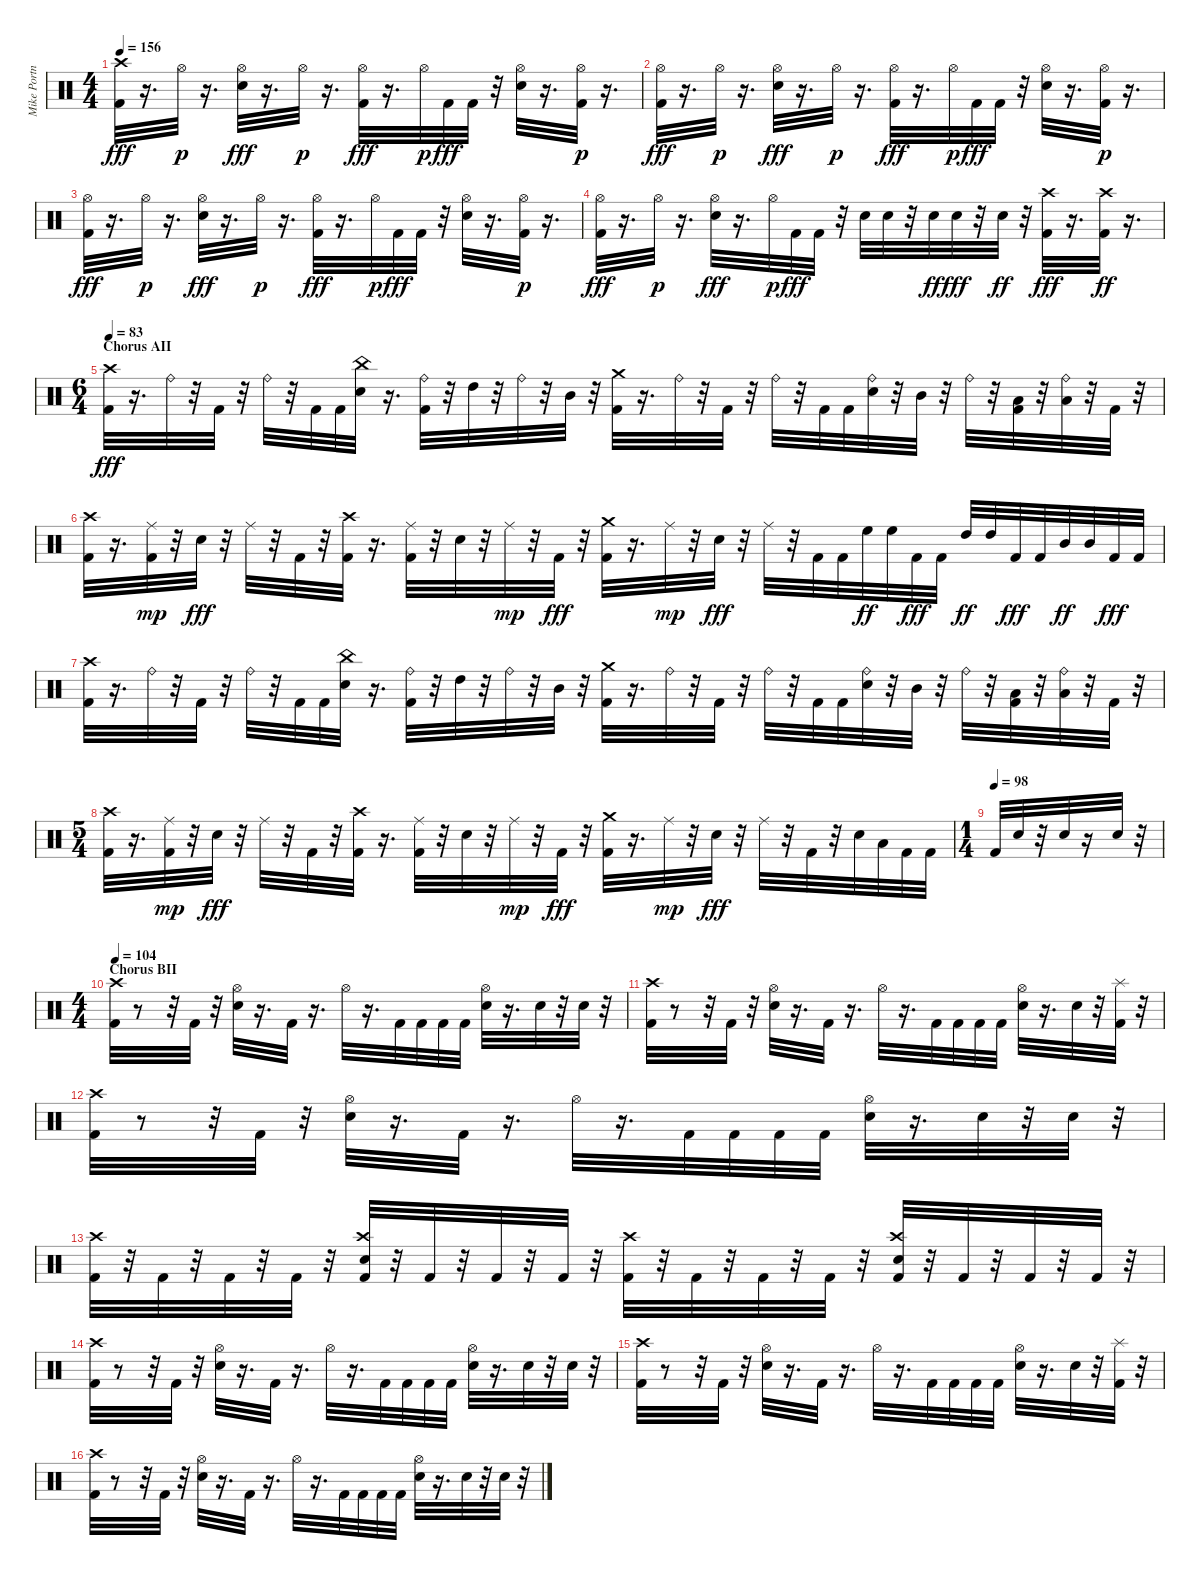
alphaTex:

\track ("Mike Portnoy" "Mike Portn") {instrument percussion}
\staff {score}
\articulation defaults
\ts (4 4)
\tempo 156
\clef neutral
\ks c
("Kick (hit) 2" "Crash high (hit)").32{dy fff} r.16{d} "Hi-Hat (open)".32{dy p} r.16{d} ("Snare (hit) 2" "Hi-Hat (open)").32{dy fff} r.16{d} "Hi-Hat (open)".32{dy p} r.16{d} ("Kick (hit) 2" "Hi-Hat (open)").32{dy fff} r.16{d} "Hi-Hat (open)".32{dy p} "Kick (hit) 2".32{dy fff} "Kick (hit) 2".32 r.32 ("Snare (hit) 2" "Hi-Hat (open)").32 r.16{d} ("Kick (hit) 2" "Hi-Hat (open)").32{dy p} r.16{d} |
("Kick (hit) 2" "Hi-Hat (open)").32{dy fff} r.16{d} "Hi-Hat (open)".32{dy p} r.16{d} ("Snare (hit) 2" "Hi-Hat (open)").32{dy fff} r.16{d} "Hi-Hat (open)".32{dy p} r.16{d} ("Kick (hit) 2" "Hi-Hat (open)").32{dy fff} r.16{d} "Hi-Hat (open)".32{dy p} "Kick (hit) 2".32{dy fff} "Kick (hit) 2".32 r.32 ("Snare (hit) 2" "Hi-Hat (open)").32 r.16{d} ("Kick (hit) 2" "Hi-Hat (open)").32{dy p} r.16{d} |
("Kick (hit) 2" "Hi-Hat (open)").32{dy fff} r.16{d} "Hi-Hat (open)".32{dy p} r.16{d} ("Snare (hit) 2" "Hi-Hat (open)").32{dy fff} r.16{d} "Hi-Hat (open)".32{dy p} r.16{d} ("Kick (hit) 2" "Hi-Hat (open)").32{dy fff} r.16{d} "Hi-Hat (open)".32{dy p} "Kick (hit) 2".32{dy fff} "Kick (hit) 2".32 r.32 ("Snare (hit) 2" "Hi-Hat (open)").32 r.16{d} ("Kick (hit) 2" "Hi-Hat (open)").32{dy p} r.16{d} |
("Kick (hit) 2" "Hi-Hat (open)").32{dy fff} r.16{d} "Hi-Hat (open)".32{dy p} r.16{d} ("Snare (hit) 2" "Hi-Hat (open)").32{dy fff} r.16{d} "Hi-Hat (open)".32{dy p} "Kick (hit) 2".32{dy fff} "Kick (hit) 2".32 r.32 "Snare (hit) 2".32 "Snare (hit) 2".32 r.32 "Snare (hit) 2".32{dy ff} "Snare (hit) 2".32{dy fff} r.32 "Snare (hit) 2".32{dy ff} r.32 ("Kick (hit) 2" "Crash high (hit)").32{dy fff} r.16{d} ("Kick (hit) 2" "Crash high (hit)").32{dy ff} r.16{d} |
\ts (6 4)
\section ("" "Chorus AII")
\tempo 83
("Kick (hit) 2" "Crash high (hit)").32{dy fff} r.16{d} "Ride (bell)".32 r.32 "Kick (hit) 2".32 r.32 "Ride (bell)".32 r.32 "Kick (hit) 2".32 "Kick (hit) 2".32 ("Snare (hit) 2" "China (hit)").32 r.16{d} ("Kick (hit) 2" "Ride (bell)").32 r.32 "High Tom (hit)".32 r.32 "Ride (bell)".32 r.32 "Mid Tom (hit)".32 r.32 ("Kick (hit) 2" "Crash medium (hit)").32 r.16{d} "Ride (bell)".32 r.32 "Kick (hit) 2".32 r.32 "Ride (bell)".32 r.32 "Kick (hit) 2".32 "Kick (hit) 2".32 ("Snare (hit) 2" "Ride (bell)").32 r.32 "Mid Tom (hit)".32 r.32 "Ride (bell)".32 r.32 ("Kick (hit) 2" "Low Tom (hit)").32 r.32 ("Low Tom (hit)" "Ride (bell)").32 r.32 "Kick (hit) 2".32 r.32 |
("Kick (hit) 2" "Crash high (hit)").32 r.16{d} ("Kick (hit) 2" "Ride (middle)").32{dy mp} r.32 "Snare (hit) 2".32{dy fff} r.32 "Ride (middle)".32 r.32 "Kick (hit) 2".32 r.32 ("Kick (hit) 2" "Crash high (hit)").32 r.16{d} ("Kick (hit) 2" "Ride (middle)").32 r.32 "Snare (hit) 2".32 r.32 "Ride (middle)".32{dy mp} r.32 "Kick (hit) 2".32{dy fff} r.32 ("Kick (hit) 2" "Crash medium (hit)").32 r.16{d} "Ride (middle)".32{dy mp} r.32 "Snare (hit) 2".32{dy fff} r.32 "Ride (middle)".32 r.32 "Kick (hit) 2".32 "Kick (hit) 2".32 "High Floor Tom (hit)".32{dy ff} "High Floor Tom (hit)".32 "Kick (hit) 2".32{dy fff} "Kick (hit) 2".32 "High Tom (hit)".32{dy ff} "High Tom (hit)".32 "Kick (hit) 2".32{dy fff} "Kick (hit) 2".32 "Mid Tom (hit)".32{dy ff} "Mid Tom (hit)".32 "Kick (hit) 2".32{dy fff} "Kick (hit) 2".32 |
("Kick (hit) 2" "Crash high (hit)").32 r.16{d} "Ride (bell)".32 r.32 "Kick (hit) 2".32 r.32 "Ride (bell)".32 r.32 "Kick (hit) 2".32 "Kick (hit) 2".32 ("Snare (hit) 2" "China (hit)").32 r.16{d} ("Kick (hit) 2" "Ride (bell)").32 r.32 "High Tom (hit)".32 r.32 "Ride (bell)".32 r.32 "Mid Tom (hit)".32 r.32 ("Kick (hit) 2" "Crash medium (hit)").32 r.16{d} "Ride (bell)".32 r.32 "Kick (hit) 2".32 r.32 "Ride (bell)".32 r.32 "Kick (hit) 2".32 "Kick (hit) 2".32 ("Snare (hit) 2" "Ride (bell)").32 r.32 "Mid Tom (hit)".32 r.32 "Ride (bell)".32 r.32 ("Kick (hit) 2" "Low Tom (hit)").32 r.32 ("Low Tom (hit)" "Ride (bell)").32 r.32 "Kick (hit) 2".32 r.32 |
\ts (5 4)
("Kick (hit) 2" "Crash high (hit)").32 r.16{d} ("Kick (hit) 2" "Ride (middle)").32{dy mp} r.32 "Snare (hit) 2".32{dy fff} r.32 "Ride (middle)".32 r.32 "Kick (hit) 2".32 r.32 ("Kick (hit) 2" "Crash high (hit)").32 r.16{d} ("Kick (hit) 2" "Ride (middle)").32 r.32 "Snare (hit) 2".32 r.32 "Ride (middle)".32{dy mp} r.32 "Kick (hit) 2".32{dy fff} r.32 ("Kick (hit) 2" "Crash medium (hit)").32 r.16{d} "Ride (middle)".32{dy mp} r.32 "Snare (hit) 2".32{dy fff} r.32 "Ride (middle)".32 r.32 "Kick (hit) 2".32 r.32 "Snare (hit) 2".32 "Low Tom (hit)".32 "Kick (hit) 2".32 "Kick (hit) 2".32 |
\ts (1 4)
\tempo (98)
"Kick (hit) 2".32 "Snare (hit) 2".32 r.32 "Snare (hit) 2".32 r.16 "Snare (hit) 2".32 r.32 |
\ts (4 4)
\section ("" "Chorus BII")
\tempo 104
("Kick (hit) 2" "Crash high (hit)").32 r.8 r.32 "Kick (hit) 2".32 r.32 ("Hi-Hat (open)" "Snare (hit) 2").32 r.16{d} "Kick (hit) 2".32 r.16{d} "Hi-Hat (open)".32 r.16{d} "Kick (hit) 2".32 "Kick (hit) 2".32 "Kick (hit) 2".32 "Kick (hit) 2".32 ("Hi-Hat (open)" "Snare (hit) 2").32 r.16{d} "Snare (hit) 2".32 r.32 "Snare (hit) 2".32 r.32 |
("Kick (hit) 2" "Crash high (hit)").32 r.8 r.32 "Kick (hit) 2".32 r.32 ("Hi-Hat (open)" "Snare (hit) 2").32 r.16{d} "Kick (hit) 2".32 r.16{d} "Hi-Hat (open)".32 r.16{d} "Kick (hit) 2".32 "Kick (hit) 2".32 "Kick (hit) 2".32 "Kick (hit) 2".32 ("Hi-Hat (open)" "Snare (hit) 2").32 r.16{d} "Snare (hit) 2".32 r.32 ("Kick (hit) 2" "Splash (hit)").32 r.32 |
("Kick (hit) 2" "Crash high (hit)").32 r.8 r.32 "Kick (hit) 2".32 r.32 ("Hi-Hat (open)" "Snare (hit) 2").32 r.16{d} "Kick (hit) 2".32 r.16{d} "Hi-Hat (open)".32 r.16{d} "Kick (hit) 2".32 "Kick (hit) 2".32 "Kick (hit) 2".32 "Kick (hit) 2".32 ("Hi-Hat (open)" "Snare (hit) 2").32 r.16{d} "Snare (hit) 2".32 r.32 "Snare (hit) 2".32 r.32 |
("Kick (hit) 2" "Crash high (hit)").32 r.32 "Kick (hit) 2".32 r.32 "Kick (hit) 2".32 r.32 "Kick (hit) 2".32 r.32 ("Kick (hit) 2" "Crash high (hit)" "Snare (hit) 2").32 r.32 "Kick (hit) 2".32 r.32 "Kick (hit) 2".32 r.32 "Kick (hit) 2".32 r.32 ("Kick (hit) 2" "Crash high (hit)").32 r.32 "Kick (hit) 2".32 r.32 "Kick (hit) 2".32 r.32 "Kick (hit) 2".32 r.32 ("Kick (hit) 2" "Crash high (hit)" "Snare (hit) 2").32 r.32 "Kick (hit) 2".32 r.32 "Kick (hit) 2".32 r.32 "Kick (hit) 2".32 r.32 |
("Kick (hit) 2" "Crash high (hit)").32 r.8 r.32 "Kick (hit) 2".32 r.32 ("Hi-Hat (open)" "Snare (hit) 2").32 r.16{d} "Kick (hit) 2".32 r.16{d} "Hi-Hat (open)".32 r.16{d} "Kick (hit) 2".32 "Kick (hit) 2".32 "Kick (hit) 2".32 "Kick (hit) 2".32 ("Hi-Hat (open)" "Snare (hit) 2").32 r.16{d} "Snare (hit) 2".32 r.32 "Snare (hit) 2".32 r.32 |
("Kick (hit) 2" "Crash high (hit)").32 r.8 r.32 "Kick (hit) 2".32 r.32 ("Hi-Hat (open)" "Snare (hit) 2").32 r.16{d} "Kick (hit) 2".32 r.16{d} "Hi-Hat (open)".32 r.16{d} "Kick (hit) 2".32 "Kick (hit) 2".32 "Kick (hit) 2".32 "Kick (hit) 2".32 ("Hi-Hat (open)" "Snare (hit) 2").32 r.16{d} "Snare (hit) 2".32 r.32 ("Kick (hit) 2" "Splash (hit)").32 r.32 |
("Kick (hit) 2" "Crash high (hit)").32 r.8 r.32 "Kick (hit) 2".32 r.32 ("Hi-Hat (open)" "Snare (hit) 2").32 r.16{d} "Kick (hit) 2".32 r.16{d} "Hi-Hat (open)".32 r.16{d} "Kick (hit) 2".32 "Kick (hit) 2".32 "Kick (hit) 2".32 "Kick (hit) 2".32 ("Hi-Hat (open)" "Snare (hit) 2").32 r.16{d} "Snare (hit) 2".32 r.32 "Snare (hit) 2".32 r.32
